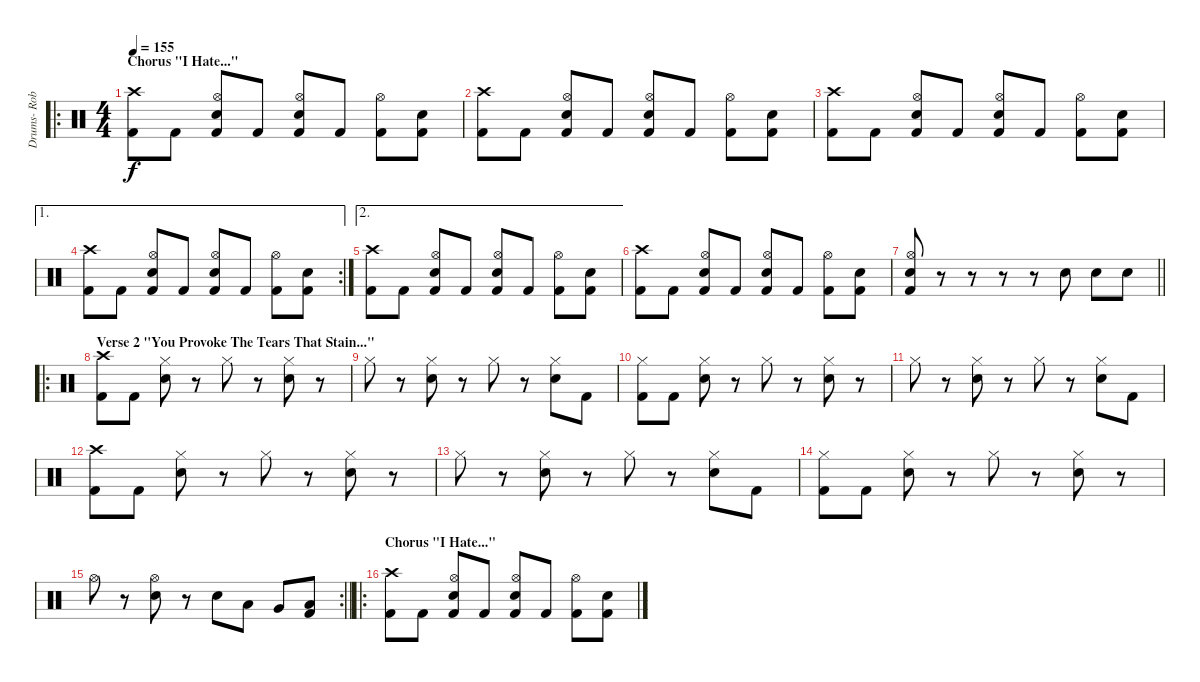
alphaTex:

\track ("Drums- Rob Rolfe" "Drums- Rob") {instrument percussion}
\staff {score}
\articulation defaults
\ro
\ts (4 4)
\section ("" "Chorus \"I Hate...\"")
\tempo 155
\clef neutral
\ks c
("Crash high (hit)" "Kick (hit) 2").8{dy f} "Kick (hit) 2".8 ("Hi-Hat (open)" "Snare (hit) 2" "Kick (hit) 2").8 "Kick (hit) 2".8 ("Hi-Hat (open)" "Snare (hit) 2" "Kick (hit) 2").8 "Kick (hit) 2".8 ("Hi-Hat (open)" "Kick (hit) 2").8 ("Snare (hit) 2" "Kick (hit) 2").8 |
("Crash high (hit)" "Kick (hit) 2").8 "Kick (hit) 2".8 ("Hi-Hat (open)" "Snare (hit) 2" "Kick (hit) 2").8 "Kick (hit) 2".8 ("Hi-Hat (open)" "Snare (hit) 2" "Kick (hit) 2").8 "Kick (hit) 2".8 ("Hi-Hat (open)" "Kick (hit) 2").8 ("Snare (hit) 2" "Kick (hit) 2").8 |
("Crash high (hit)" "Kick (hit) 2").8 "Kick (hit) 2".8 ("Hi-Hat (open)" "Snare (hit) 2" "Kick (hit) 2").8 "Kick (hit) 2".8 ("Hi-Hat (open)" "Snare (hit) 2" "Kick (hit) 2").8 "Kick (hit) 2".8 ("Hi-Hat (open)" "Kick (hit) 2").8 ("Snare (hit) 2" "Kick (hit) 2").8 |
\ae 1
\rc 2
("Crash high (hit)" "Kick (hit) 2").8 "Kick (hit) 2".8 ("Hi-Hat (open)" "Snare (hit) 2" "Kick (hit) 2").8 "Kick (hit) 2".8 ("Hi-Hat (open)" "Snare (hit) 2" "Kick (hit) 2").8 "Kick (hit) 2".8 ("Hi-Hat (open)" "Kick (hit) 2").8 ("Snare (hit) 2" "Kick (hit) 2").8 |
\ae 2
("Crash high (hit)" "Kick (hit) 2").8 "Kick (hit) 2".8 ("Hi-Hat (open)" "Snare (hit) 2" "Kick (hit) 2").8 "Kick (hit) 2".8 ("Hi-Hat (open)" "Snare (hit) 2" "Kick (hit) 2").8 "Kick (hit) 2".8 ("Hi-Hat (open)" "Kick (hit) 2").8 ("Snare (hit) 2" "Kick (hit) 2").8 |
("Crash high (hit)" "Kick (hit) 2").8 "Kick (hit) 2".8 ("Hi-Hat (open)" "Snare (hit) 2" "Kick (hit) 2").8 "Kick (hit) 2".8 ("Hi-Hat (open)" "Snare (hit) 2" "Kick (hit) 2").8 "Kick (hit) 2".8 ("Hi-Hat (open)" "Kick (hit) 2").8 ("Snare (hit) 2" "Kick (hit) 2").8 |
\barLineRight lightlight
("Hi-Hat (open)" "Snare (hit) 2" "Kick (hit) 2").8 r.8 r.8 r.8 r.8 "Snare (hit) 2".8 "Snare (hit) 2".8 "Snare (hit) 2".8 |
\ro
\section ("" "Verse 2 \"You Provoke The Tears That Stain...\"")
("Crash high (hit)" "Kick (hit) 2").8 "Kick (hit) 2".8 ("Hi-Hat (closed)" "Snare (hit) 2").8 r.8 "Hi-Hat (closed)".8 r.8 ("Hi-Hat (closed)" "Snare (hit) 2").8 r.8 |
"Hi-Hat (closed)".8 r.8 ("Hi-Hat (closed)" "Snare (hit) 2").8 r.8 "Hi-Hat (closed)".8 r.8 ("Hi-Hat (closed)" "Snare (hit) 2").8 "Kick (hit) 2".8 |
("Hi-Hat (closed)" "Kick (hit) 2").8 "Kick (hit) 2".8 ("Hi-Hat (closed)" "Snare (hit) 2").8 r.8 "Hi-Hat (closed)".8 r.8 ("Hi-Hat (closed)" "Snare (hit) 2").8 r.8 |
"Hi-Hat (closed)".8 r.8 ("Hi-Hat (closed)" "Snare (hit) 2").8 r.8 "Hi-Hat (closed)".8 r.8 ("Hi-Hat (closed)" "Snare (hit) 2").8 "Kick (hit) 2".8 |
("Crash high (hit)" "Kick (hit) 2").8 "Kick (hit) 2".8 ("Hi-Hat (closed)" "Snare (hit) 2").8 r.8 "Hi-Hat (closed)".8 r.8 ("Hi-Hat (closed)" "Snare (hit) 2").8 r.8 |
"Hi-Hat (closed)".8 r.8 ("Hi-Hat (closed)" "Snare (hit) 2").8 r.8 "Hi-Hat (closed)".8 r.8 ("Hi-Hat (closed)" "Snare (hit) 2").8 "Kick (hit) 2".8 |
("Hi-Hat (closed)" "Kick (hit) 2").8 "Kick (hit) 2".8 ("Hi-Hat (closed)" "Snare (hit) 2").8 r.8 "Hi-Hat (closed)".8 r.8 ("Hi-Hat (closed)" "Snare (hit) 2").8 r.8 |
\rc 2
\barLineRight lightlight "Hi-Hat (open)".8
r.8 ("Hi-Hat (open)" "Snare (hit) 2").8 r.8 "Snare (hit) 2".8 "Low Tom (hit)".8 "Very Low Tom (hit)".8 ("Low Floor Tom (hit)" "Kick (hit) 2").8 |
\ro
\section ("" "Chorus \"I Hate...\"")
("Crash high (hit)" "Kick (hit) 2").8 "Kick (hit) 2".8 ("Hi-Hat (open)" "Snare (hit) 2" "Kick (hit) 2").8 "Kick (hit) 2".8 ("Hi-Hat (open)" "Snare (hit) 2" "Kick (hit) 2").8 "Kick (hit) 2".8 ("Hi-Hat (open)" "Kick (hit) 2").8 ("Snare (hit) 2" "Kick (hit) 2").8
